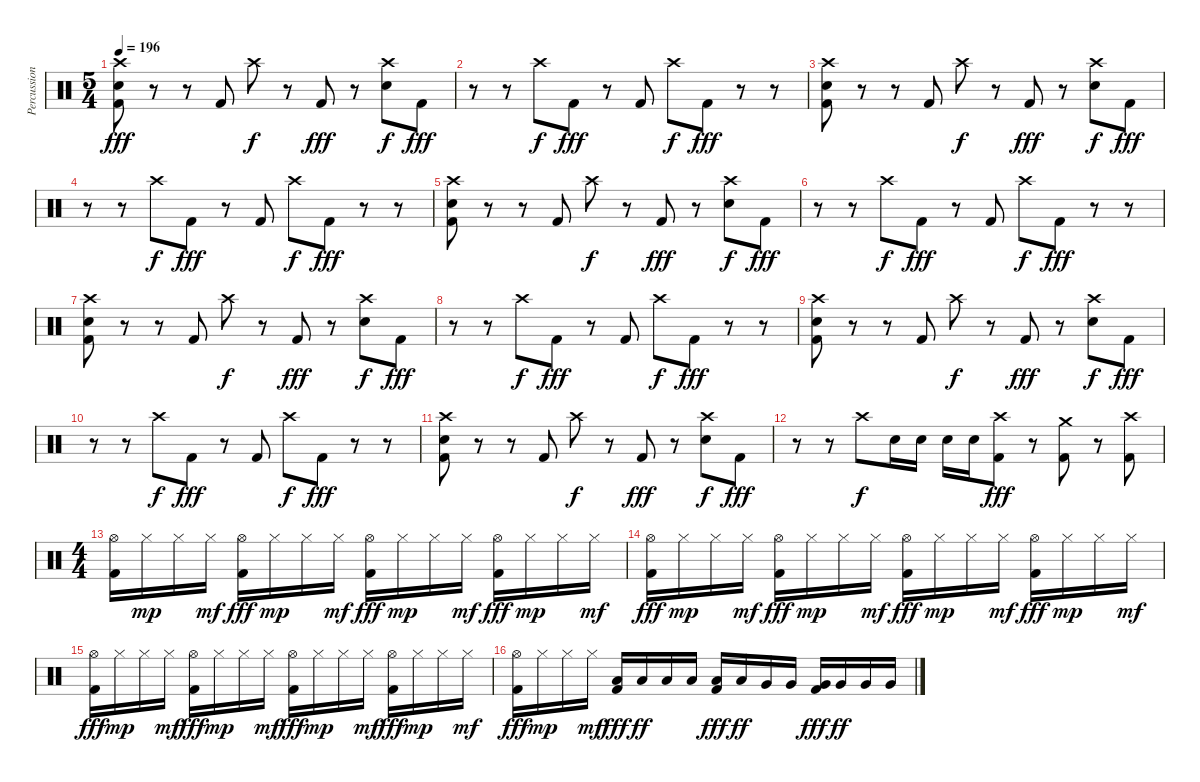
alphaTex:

\track ("Percussion" "Percussion") {instrument percussion}
\staff {score}
\articulation defaults
\ts (5 4)
\tempo 196
\clef neutral
\ks c
("Crash high (hit)" "Electric Snare (hit)" "Kick (hit) 2").8{dy fff} r.8 r.8 "Kick (hit) 2".8 "Crash high (hit)".8{dy f} r.8 "Kick (hit) 2".8{dy fff} r.8 ("Crash high (hit)" "Electric Snare (hit)").8{dy f} "Kick (hit) 2".8{dy fff} |
r.8 r.8 "Crash high (hit)".8{dy f} "Kick (hit) 2".8{dy fff} r.8 "Kick (hit) 2".8 "Crash high (hit)".8{dy f} "Kick (hit) 2".8{dy fff} r.8 r.8 |
("Crash high (hit)" "Electric Snare (hit)" "Kick (hit) 2").8 r.8 r.8 "Kick (hit) 2".8 "Crash high (hit)".8{dy f} r.8 "Kick (hit) 2".8{dy fff} r.8 ("Crash high (hit)" "Electric Snare (hit)").8{dy f} "Kick (hit) 2".8{dy fff} |
r.8 r.8 "Crash high (hit)".8{dy f} "Kick (hit) 2".8{dy fff} r.8 "Kick (hit) 2".8 "Crash high (hit)".8{dy f} "Kick (hit) 2".8{dy fff} r.8 r.8 |
("Crash high (hit)" "Electric Snare (hit)" "Kick (hit) 2").8 r.8 r.8 "Kick (hit) 2".8 "Crash high (hit)".8{dy f} r.8 "Kick (hit) 2".8{dy fff} r.8 ("Crash high (hit)" "Electric Snare (hit)").8{dy f} "Kick (hit) 2".8{dy fff} |
r.8 r.8 "Crash high (hit)".8{dy f} "Kick (hit) 2".8{dy fff} r.8 "Kick (hit) 2".8 "Crash high (hit)".8{dy f} "Kick (hit) 2".8{dy fff} r.8 r.8 |
("Crash high (hit)" "Electric Snare (hit)" "Kick (hit) 2").8 r.8 r.8 "Kick (hit) 2".8 "Crash high (hit)".8{dy f} r.8 "Kick (hit) 2".8{dy fff} r.8 ("Crash high (hit)" "Electric Snare (hit)").8{dy f} "Kick (hit) 2".8{dy fff} |
r.8 r.8 "Crash high (hit)".8{dy f} "Kick (hit) 2".8{dy fff} r.8 "Kick (hit) 2".8 "Crash high (hit)".8{dy f} "Kick (hit) 2".8{dy fff} r.8 r.8 |
("Crash high (hit)" "Electric Snare (hit)" "Kick (hit) 2").8 r.8 r.8 "Kick (hit) 2".8 "Crash high (hit)".8{dy f} r.8 "Kick (hit) 2".8{dy fff} r.8 ("Crash high (hit)" "Electric Snare (hit)").8{dy f} "Kick (hit) 2".8{dy fff} |
r.8 r.8 "Crash high (hit)".8{dy f} "Kick (hit) 2".8{dy fff} r.8 "Kick (hit) 2".8 "Crash high (hit)".8{dy f} "Kick (hit) 2".8{dy fff} r.8 r.8 |
("Crash high (hit)" "Electric Snare (hit)" "Kick (hit) 2").8 r.8 r.8 "Kick (hit) 2".8 "Crash high (hit)".8{dy f} r.8 "Kick (hit) 2".8{dy fff} r.8 ("Crash high (hit)" "Electric Snare (hit)").8{dy f} "Kick (hit) 2".8{dy fff} |
r.8 r.8 "Crash high (hit)".8{dy f} "Electric Snare (hit)".16 "Electric Snare (hit)".16 "Electric Snare (hit)".16 "Electric Snare (hit)".16 ("Crash high (hit)" "Kick (hit) 2").8{dy fff} r.8 ("Crash medium (hit)" "Kick (hit) 2").8 r.8 ("Crash high (hit)" "Kick (hit) 2").8 |
\ts (4 4)
("Hi-Hat (open)" "Kick (hit) 2").16 "Hi-Hat (closed)".16{dy mp} "Hi-Hat (closed)".16 "Hi-Hat (closed)".16{dy mf} ("Hi-Hat (open)" "Kick (hit) 2").16{dy fff} "Hi-Hat (closed)".16{dy mp} "Hi-Hat (closed)".16 "Hi-Hat (closed)".16{dy mf} ("Hi-Hat (open)" "Kick (hit) 2").16{dy fff} "Hi-Hat (closed)".16{dy mp} "Hi-Hat (closed)".16 "Hi-Hat (closed)".16{dy mf} ("Hi-Hat (open)" "Kick (hit) 2").16{dy fff} "Hi-Hat (closed)".16{dy mp} "Hi-Hat (closed)".16 "Hi-Hat (closed)".16{dy mf} |
("Hi-Hat (open)" "Kick (hit) 2").16{dy fff} "Hi-Hat (closed)".16{dy mp} "Hi-Hat (closed)".16 "Hi-Hat (closed)".16{dy mf} ("Hi-Hat (open)" "Kick (hit) 2").16{dy fff} "Hi-Hat (closed)".16{dy mp} "Hi-Hat (closed)".16 "Hi-Hat (closed)".16{dy mf} ("Hi-Hat (open)" "Kick (hit) 2").16{dy fff} "Hi-Hat (closed)".16{dy mp} "Hi-Hat (closed)".16 "Hi-Hat (closed)".16{dy mf} ("Hi-Hat (open)" "Kick (hit) 2").16{dy fff} "Hi-Hat (closed)".16{dy mp} "Hi-Hat (closed)".16 "Hi-Hat (closed)".16{dy mf} |
("Hi-Hat (open)" "Kick (hit) 2").16{dy fff} "Hi-Hat (closed)".16{dy mp} "Hi-Hat (closed)".16 "Hi-Hat (closed)".16{dy mf} ("Hi-Hat (open)" "Kick (hit) 2").16{dy fff} "Hi-Hat (closed)".16{dy mp} "Hi-Hat (closed)".16 "Hi-Hat (closed)".16{dy mf} ("Hi-Hat (open)" "Kick (hit) 2").16{dy fff} "Hi-Hat (closed)".16{dy mp} "Hi-Hat (closed)".16 "Hi-Hat (closed)".16{dy mf} ("Hi-Hat (open)" "Kick (hit) 2").16{dy fff} "Hi-Hat (closed)".16{dy mp} "Hi-Hat (closed)".16 "Hi-Hat (closed)".16{dy mf} |
("Hi-Hat (open)" "Kick (hit) 2").16{dy fff} "Hi-Hat (closed)".16{dy mp} "Hi-Hat (closed)".16 "Hi-Hat (closed)".16{dy mf} ("Low Tom (hit)" "Kick (hit) 2").16{dy fff} "Low Tom (hit)".16{dy ff} "Low Tom (hit)".16 "Low Tom (hit)".16 ("Low Tom (hit)" "Kick (hit) 2").16{dy fff} "Low Tom (hit)".16{dy ff} "Very Low Tom (hit)".16 "Very Low Tom (hit)".16 ("Very Low Tom (hit)" "Kick (hit) 2").16{dy fff} "Very Low Tom (hit)".16{dy ff} "Very Low Tom (hit)".16 "Very Low Tom (hit)".16
